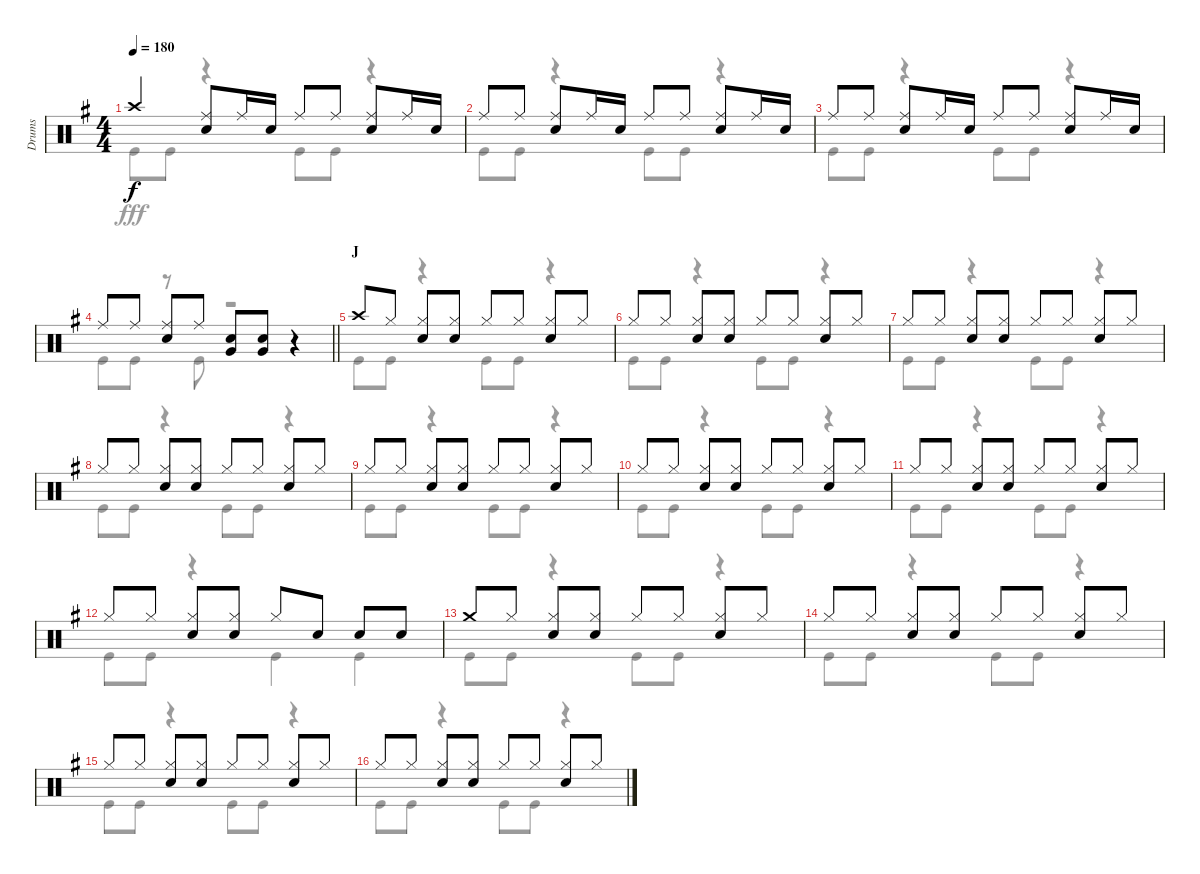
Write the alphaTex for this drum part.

\track ("Drums" "Drums") {instrument percussion}
\staff {score}
\articulation defaults
\voice
\ts (4 4)
\tempo 180
\clef neutral
\ks g "Crash high (hit)".4{dy f}
("Ride (middle)" "Snare (hit) 2").8 "Ride (middle)".16 "Snare (hit) 2".16 "Ride (middle)".8 "Ride (middle)".8 ("Ride (middle)" "Snare (hit) 2").8 "Ride (middle)".16 "Snare (hit) 2".16 |
"Ride (middle)".8 "Ride (middle)".8 ("Ride (middle)" "Snare (hit) 2").8 "Ride (middle)".16 "Snare (hit) 2".16 "Ride (middle)".8 "Ride (middle)".8 ("Ride (middle)" "Snare (hit) 2").8 "Ride (middle)".16 "Snare (hit) 2".16 |
"Ride (middle)".8 "Ride (middle)".8 ("Ride (middle)" "Snare (hit) 2").8 "Ride (middle)".16 "Snare (hit) 2".16 "Ride (middle)".8 "Ride (middle)".8 ("Ride (middle)" "Snare (hit) 2").8 "Ride (middle)".16 "Snare (hit) 2".16 |
\barLineRight lightlight "Ride (middle)".8 "Ride (middle)".8
("Ride (middle)" "Snare (hit) 2").8 "Ride (middle)".8 ("Snare (hit) 2" "Very Low Tom (hit)").8 ("Snare (hit) 2" "Very Low Tom (hit)").8 r.4 |
\section ("" "J")
"Crash high (hit)".8 "Hi-Hat (closed)".8 ("Hi-Hat (closed)" "Snare (hit) 2").8 ("Hi-Hat (closed)" "Snare (hit) 2").8 "Hi-Hat (closed)".8 "Hi-Hat (closed)".8 ("Hi-Hat (closed)" "Snare (hit) 2").8 "Hi-Hat (closed)".8 |
"Hi-Hat (closed)".8 "Hi-Hat (closed)".8 ("Hi-Hat (closed)" "Snare (hit) 2").8 ("Hi-Hat (closed)" "Snare (hit) 2").8 "Hi-Hat (closed)".8 "Hi-Hat (closed)".8 ("Hi-Hat (closed)" "Snare (hit) 2").8 "Hi-Hat (closed)".8 |
"Hi-Hat (closed)".8 "Hi-Hat (closed)".8 ("Hi-Hat (closed)" "Snare (hit) 2").8 ("Hi-Hat (closed)" "Snare (hit) 2").8 "Hi-Hat (closed)".8 "Hi-Hat (closed)".8 ("Hi-Hat (closed)" "Snare (hit) 2").8 "Hi-Hat (closed)".8 |
"Hi-Hat (closed)".8 "Hi-Hat (closed)".8 ("Hi-Hat (closed)" "Snare (hit) 2").8 ("Hi-Hat (closed)" "Snare (hit) 2").8 "Hi-Hat (closed)".8 "Hi-Hat (closed)".8 ("Hi-Hat (closed)" "Snare (hit) 2").8 "Hi-Hat (closed)".8 |
"Hi-Hat (closed)".8 "Hi-Hat (closed)".8 ("Hi-Hat (closed)" "Snare (hit) 2").8 ("Hi-Hat (closed)" "Snare (hit) 2").8 "Hi-Hat (closed)".8 "Hi-Hat (closed)".8 ("Hi-Hat (closed)" "Snare (hit) 2").8 "Hi-Hat (closed)".8 |
"Hi-Hat (closed)".8 "Hi-Hat (closed)".8 ("Hi-Hat (closed)" "Snare (hit) 2").8 ("Hi-Hat (closed)" "Snare (hit) 2").8 "Hi-Hat (closed)".8 "Hi-Hat (closed)".8 ("Hi-Hat (closed)" "Snare (hit) 2").8 "Hi-Hat (closed)".8 |
"Hi-Hat (closed)".8 "Hi-Hat (closed)".8 ("Hi-Hat (closed)" "Snare (hit) 2").8 ("Hi-Hat (closed)" "Snare (hit) 2").8 "Hi-Hat (closed)".8 "Hi-Hat (closed)".8 ("Hi-Hat (closed)" "Snare (hit) 2").8 "Hi-Hat (closed)".8 |
"Hi-Hat (closed)".8 "Hi-Hat (closed)".8 ("Hi-Hat (closed)" "Snare (hit) 2").8 ("Hi-Hat (closed)" "Snare (hit) 2").8 "Hi-Hat (closed)".8 "Snare (hit) 2".8 "Snare (hit) 2".8 "Snare (hit) 2".8 |
"Crash medium (hit)".8 "Hi-Hat (closed)".8 ("Hi-Hat (closed)" "Snare (hit) 2").8 ("Hi-Hat (closed)" "Snare (hit) 2").8 "Hi-Hat (closed)".8 "Hi-Hat (closed)".8 ("Hi-Hat (closed)" "Snare (hit) 2").8 "Hi-Hat (closed)".8 |
"Hi-Hat (closed)".8 "Hi-Hat (closed)".8 ("Hi-Hat (closed)" "Snare (hit) 2").8 ("Hi-Hat (closed)" "Snare (hit) 2").8 "Hi-Hat (closed)".8 "Hi-Hat (closed)".8 ("Hi-Hat (closed)" "Snare (hit) 2").8 "Hi-Hat (closed)".8 |
"Hi-Hat (closed)".8 "Hi-Hat (closed)".8 ("Hi-Hat (closed)" "Snare (hit) 2").8 ("Hi-Hat (closed)" "Snare (hit) 2").8 "Hi-Hat (closed)".8 "Hi-Hat (closed)".8 ("Hi-Hat (closed)" "Snare (hit) 2").8 "Hi-Hat (closed)".8 |
"Hi-Hat (closed)".8 "Hi-Hat (closed)".8 ("Hi-Hat (closed)" "Snare (hit) 2").8 ("Hi-Hat (closed)" "Snare (hit) 2").8 "Hi-Hat (closed)".8 "Hi-Hat (closed)".8 ("Hi-Hat (closed)" "Snare (hit) 2").8 "Hi-Hat (closed)".8
\voice
\clef neutral
\ottava regular
\simile none
\ks g "Kick (hit)".8{dy fff} "Kick (hit)".8
r.4 "Kick (hit)".8 "Kick (hit)".8 r.4 |
"Kick (hit)".8 "Kick (hit)".8 r.4 "Kick (hit)".8 "Kick (hit)".8 r.4 |
"Kick (hit)".8 "Kick (hit)".8 r.4 "Kick (hit)".8 "Kick (hit)".8 r.4 |
\barLineRight lightlight "Kick (hit)".8 "Kick (hit)".8
r.8 "Kick (hit)".8 r.2 |
"Kick (hit)".8 "Kick (hit)".8 r.4 "Kick (hit)".8 "Kick (hit)".8 r.4 |
"Kick (hit)".8 "Kick (hit)".8 r.4 "Kick (hit)".8 "Kick (hit)".8 r.4 |
"Kick (hit)".8 "Kick (hit)".8 r.4 "Kick (hit)".8 "Kick (hit)".8 r.4 |
"Kick (hit)".8 "Kick (hit)".8 r.4 "Kick (hit)".8 "Kick (hit)".8 r.4 |
"Kick (hit)".8 "Kick (hit)".8 r.4 "Kick (hit)".8 "Kick (hit)".8 r.4 |
"Kick (hit)".8 "Kick (hit)".8 r.4 "Kick (hit)".8 "Kick (hit)".8 r.4 |
"Kick (hit)".8 "Kick (hit)".8 r.4 "Kick (hit)".8 "Kick (hit)".8 r.4 |
"Kick (hit)".8 "Kick (hit)".8 r.4 "Kick (hit)".4 "Kick (hit)".4 |
"Kick (hit)".8 "Kick (hit)".8 r.4 "Kick (hit)".8 "Kick (hit)".8 r.4 |
"Kick (hit)".8 "Kick (hit)".8 r.4 "Kick (hit)".8 "Kick (hit)".8 r.4 |
"Kick (hit)".8 "Kick (hit)".8 r.4 "Kick (hit)".8 "Kick (hit)".8 r.4 |
"Kick (hit)".8 "Kick (hit)".8 r.4 "Kick (hit)".8 "Kick (hit)".8 r.4
